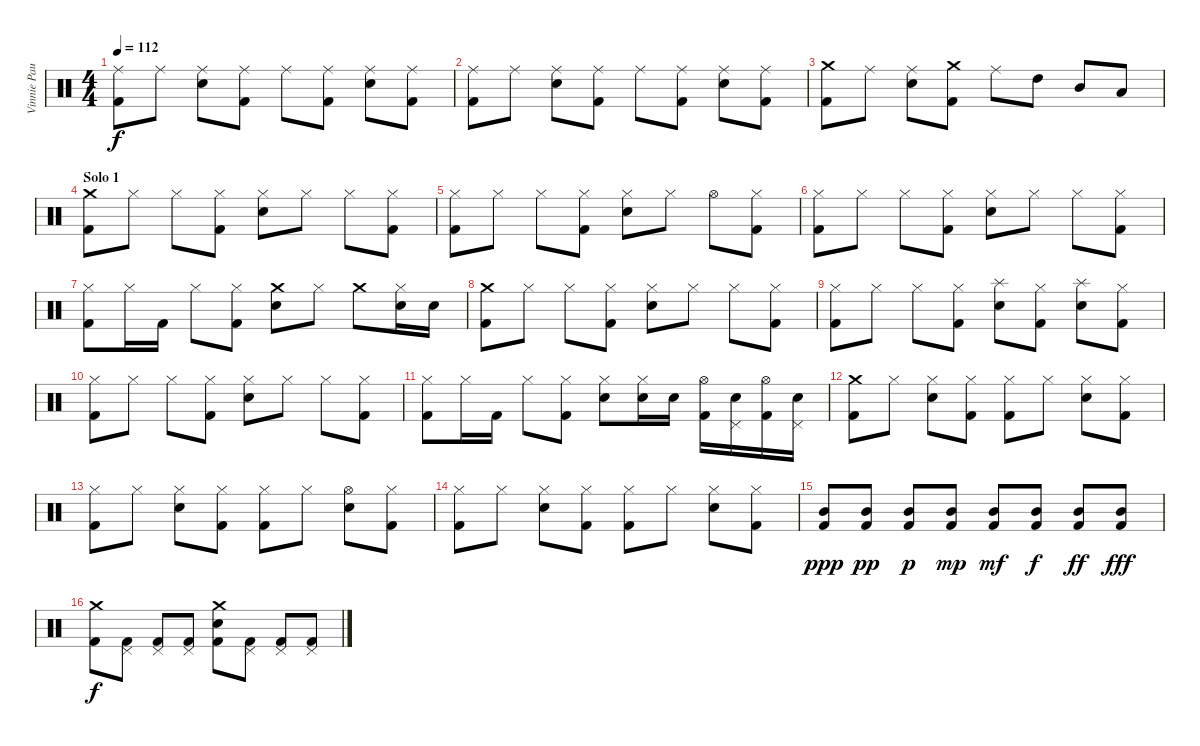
\track ("Vinnie Paul" "Vinnie Pau") {instrument percussion}
\staff {score}
\articulation defaults
\ts (4 4)
\tempo 112
\clef neutral
\ks c
("Ride (middle)" "Kick (hit) 2").8{dy f} "Ride (middle)".8 ("Ride (middle)" "Electric Snare (hit)").8 ("Ride (middle)" "Kick (hit) 2").8 "Ride (middle)".8 ("Ride (middle)" "Kick (hit) 2").8 ("Ride (middle)" "Electric Snare (hit)").8 ("Ride (middle)" "Kick (hit) 2").8 |
("Ride (middle)" "Kick (hit) 2").8 "Ride (middle)".8 ("Ride (middle)" "Electric Snare (hit)").8 ("Ride (middle)" "Kick (hit) 2").8 "Ride (middle)".8 ("Ride (middle)" "Kick (hit) 2").8 ("Ride (middle)" "Electric Snare (hit)").8 ("Ride (middle)" "Kick (hit) 2").8 |
("Crash medium (hit)" "Kick (hit) 2").8 "Ride (middle)".8 ("Ride (middle)" "Electric Snare (hit)").8 ("Crash medium (hit)" "Kick (hit) 2").8 "Ride (middle)".8 "High Tom (hit)".8 "Mid Tom (hit)".8 "Low Tom (hit)".8 |
\section ("" "Solo 1")
("Crash medium (hit)" "Kick (hit) 2").8 "Hi-Hat (closed)".8 "Hi-Hat (closed)".8 ("Hi-Hat (closed)" "Kick (hit) 2").8 ("Hi-Hat (closed)" "Electric Snare (hit)").8 "Hi-Hat (closed)".8 "Hi-Hat (closed)".8 ("Hi-Hat (closed)" "Kick (hit) 2").8 |
("Hi-Hat (closed)" "Kick (hit) 2").8 "Hi-Hat (closed)".8 "Hi-Hat (closed)".8 ("Hi-Hat (closed)" "Kick (hit) 2").8 ("Hi-Hat (closed)" "Electric Snare (hit)").8 "Hi-Hat (closed)".8 "Hi-Hat (open)".8 ("Hi-Hat (closed)" "Kick (hit) 2").8 |
("Hi-Hat (closed)" "Kick (hit) 2").8 "Hi-Hat (closed)".8 "Hi-Hat (closed)".8 ("Hi-Hat (closed)" "Kick (hit) 2").8 ("Hi-Hat (closed)" "Electric Snare (hit)").8 "Hi-Hat (closed)".8 "Hi-Hat (closed)".8 ("Hi-Hat (closed)" "Kick (hit) 2").8 |
("Hi-Hat (closed)" "Kick (hit) 2").8 "Hi-Hat (closed)".16 "Kick (hit) 2".16 "Hi-Hat (closed)".8 ("Hi-Hat (closed)" "Kick (hit) 2").8 ("Crash medium (hit)" "Electric Snare (hit)").8 "Hi-Hat (closed)".8 "Crash medium (hit)".8 ("Hi-Hat (closed)" "Electric Snare (hit)").16 "Electric Snare (hit)".16 |
("Crash medium (hit)" "Kick (hit) 2").8 "Hi-Hat (closed)".8 "Hi-Hat (closed)".8 ("Hi-Hat (closed)" "Kick (hit) 2").8 ("Hi-Hat (closed)" "Electric Snare (hit)").8 "Hi-Hat (closed)".8 "Hi-Hat (closed)".8 ("Hi-Hat (closed)" "Kick (hit) 2").8 |
("Hi-Hat (closed)" "Kick (hit) 2").8 "Hi-Hat (closed)".8 "Hi-Hat (closed)".8 ("Hi-Hat (closed)" "Kick (hit) 2").8 ("Splash (hit)" "Electric Snare (hit)").8 ("Hi-Hat (closed)" "Kick (hit) 2").8 ("Splash (hit)" "Electric Snare (hit)").8 ("Hi-Hat (closed)" "Kick (hit) 2").8 |
("Hi-Hat (closed)" "Kick (hit) 2").8 "Hi-Hat (closed)".8 "Hi-Hat (closed)".8 ("Hi-Hat (closed)" "Kick (hit) 2").8 ("Hi-Hat (closed)" "Electric Snare (hit)").8 "Hi-Hat (closed)".8 "Hi-Hat (closed)".8 ("Hi-Hat (closed)" "Kick (hit) 2").8 |
("Hi-Hat (closed)" "Kick (hit) 2").8 "Hi-Hat (closed)".16 "Kick (hit) 2".16 "Hi-Hat (closed)".8 ("Hi-Hat (closed)" "Kick (hit) 2").8 ("Hi-Hat (closed)" "Electric Snare (hit)").8 ("Hi-Hat (closed)" "Electric Snare (hit)").16 "Electric Snare (hit)".16 ("Hi-Hat (open)" "Kick (hit) 2").16 ("Pedal Hi-Hat (hit)" "Electric Snare (hit)").16 ("Hi-Hat (open)" "Kick (hit) 2").16 ("Pedal Hi-Hat (hit)" "Electric Snare (hit)").16 |
("Crash medium (hit)" "Kick (hit) 2").8 "Hi-Hat (closed)".8 ("Hi-Hat (closed)" "Electric Snare (hit)").8 ("Hi-Hat (closed)" "Kick (hit) 2").8 ("Hi-Hat (closed)" "Kick (hit) 2").8 "Hi-Hat (closed)".8 ("Hi-Hat (closed)" "Electric Snare (hit)").8 ("Hi-Hat (closed)" "Kick (hit) 2").8 |
("Hi-Hat (closed)" "Kick (hit) 2").8 "Hi-Hat (closed)".8 ("Hi-Hat (closed)" "Electric Snare (hit)").8 ("Hi-Hat (closed)" "Kick (hit) 2").8 ("Hi-Hat (closed)" "Kick (hit) 2").8 "Hi-Hat (closed)".8 ("Hi-Hat (open)" "Electric Snare (hit)").8 ("Hi-Hat (closed)" "Kick (hit) 2").8 |
("Hi-Hat (closed)" "Kick (hit) 2").8 "Hi-Hat (closed)".8 ("Hi-Hat (closed)" "Electric Snare (hit)").8 ("Hi-Hat (closed)" "Kick (hit) 2").8 ("Hi-Hat (closed)" "Kick (hit) 2").8 "Hi-Hat (closed)".8 ("Hi-Hat (closed)" "Electric Snare (hit)").8 ("Hi-Hat (closed)" "Kick (hit) 2").8 |
("Mid Tom (hit)" "Kick (hit) 2").8{dy ppp} ("Mid Tom (hit)" "Kick (hit) 2").8{dy pp} ("Mid Tom (hit)" "Kick (hit) 2").8{dy p} ("Mid Tom (hit)" "Kick (hit) 2").8{dy mp} ("Mid Tom (hit)" "Kick (hit) 2").8{dy mf} ("Mid Tom (hit)" "Kick (hit) 2").8{dy f} ("Mid Tom (hit)" "Kick (hit) 2").8{dy ff} ("Mid Tom (hit)" "Kick (hit) 2").8{dy fff} |
("Crash medium (hit)" "Kick (hit) 2").8{dy f} ("Pedal Hi-Hat (hit)" "Kick (hit) 2").8 ("Pedal Hi-Hat (hit)" "Kick (hit) 2").8 ("Pedal Hi-Hat (hit)" "Kick (hit) 2").8 ("Crash medium (hit)" "Electric Snare (hit)" "Kick (hit) 2").8 ("Pedal Hi-Hat (hit)" "Kick (hit) 2").8 ("Pedal Hi-Hat (hit)" "Kick (hit) 2").8 ("Pedal Hi-Hat (hit)" "Kick (hit) 2").8
